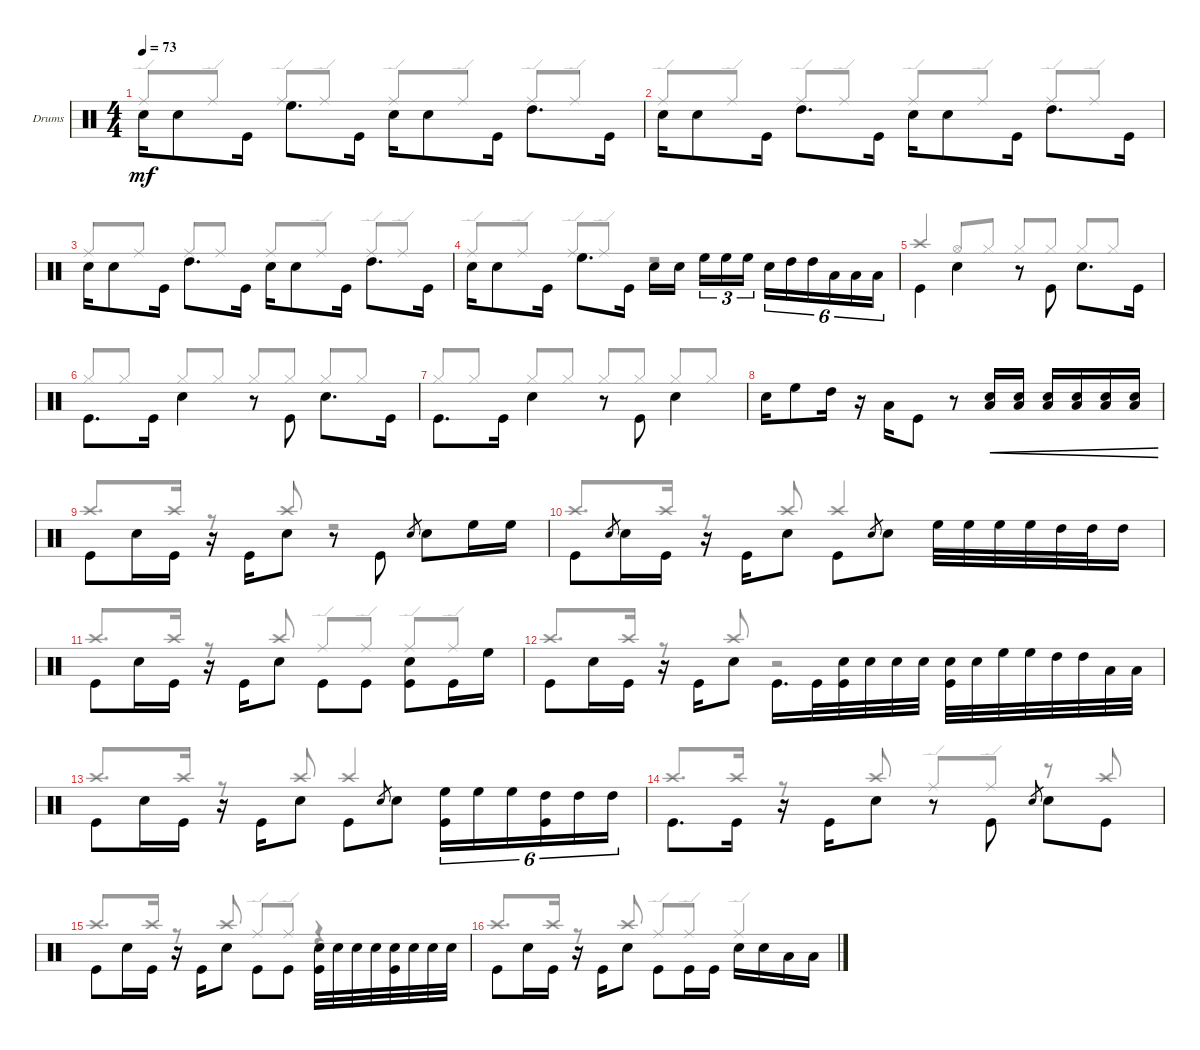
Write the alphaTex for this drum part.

\defaultSystemsLayout 4
\bracketExtendMode groupsimilarinstruments
\firstSystemTrackNameOrientation horizontal
\otherSystemsTrackNameOrientation horizontal
\track ("Drumkit" "Drums") {solo instrument percussion}
\staff {score}
\articulation defaults
\voice
\ts (4 4)
\tempo 73
\clef neutral
\ks c "Snare (hit) 2".16{dy mf beam invert} "Snare (hit) 2".8 "Kick (hit)".16 "High Floor Tom (hit)".8{d beam invert} "Kick (hit)".16 "Snare (hit) 2".16{beam invert} "Snare (hit) 2".8 "Kick (hit)".16 "High Tom (hit)".8{d beam invert} "Kick (hit)".16
|
"Snare (hit) 2".16{beam invert} "Snare (hit) 2".8 "Kick (hit)".16 "High Tom (hit)".8{d beam invert} "Kick (hit)".16 "Snare (hit) 2".16{beam invert} "Snare (hit) 2".8 "Kick (hit)".16 "High Tom (hit)".8{d beam invert} "Kick (hit)".16 |
"Snare (hit) 2".16{beam invert} "Snare (hit) 2".8 "Kick (hit)".16 "High Tom (hit)".8{d beam invert} "Kick (hit)".16 "Snare (hit) 2".16{beam invert} "Snare (hit) 2".8 "Kick (hit)".16 "High Tom (hit)".8{d beam invert} "Kick (hit)".16 |
"Snare (hit) 2".16{beam invert} "Snare (hit) 2".8 "Kick (hit)".16 "High Floor Tom (hit)".8{d beam invert} "Kick (hit)".16 "Snare (hit) 2".16{beam invert} "Snare (hit) 2".16 "High Floor Tom (hit)".16{tu (3 2) beam invert} "High Floor Tom (hit)".16{tu (3 2)} "High Floor Tom (hit)".16{tu (3 2)} "Snare (hit) 2".16{tu (6 4) beam invert} "High Tom (hit)".16{tu (6 4)} "High Tom (hit)".16{tu (6 4)} "Low Tom (hit)".16{tu (6 4)} "Low Tom (hit)".16{tu (6 4)} "Low Tom (hit)".16{tu (6 4)} |
\scale
0.239925 "Kick (hit)".4{beam invert} "Snare (hit) 2".4{beam invert} r.8 "Kick (hit)".8{beam invert} "Snare (hit) 2".8{d beam invert} "Kick (hit)".16 |
\scale
0.258172 "Kick (hit)".8{d beam invert} "Kick (hit)".16 "Snare (hit) 2".4{beam invert} r.8 "Kick (hit)".8{beam invert} "Snare (hit) 2".8{d beam invert} "Kick (hit)".16 |
\scale
0.207911 "Kick (hit)".8{d beam invert} "Kick (hit)".16 "Snare (hit) 2".4{beam invert} r.8 "Kick (hit)".8{beam invert} "Snare (hit) 2".4{beam invert} |
\scale
0.292541 "Snare (hit) 2".16 "High Floor Tom (hit)".8 "High Tom (hit)".16 r.16 "Low Tom (hit)".16{beam invert} "Kick (hit)".8 r.8 ("Snare (hit) 2" "Low Tom (hit)").16{cre beam invert} ("Snare (hit) 2" "Low Tom (hit)").16{cre} ("Snare (hit) 2" "Low Tom (hit)").16{cre beam invert} ("Snare (hit) 2" "Low Tom (hit)").16{cre} ("Snare (hit) 2" "Low Tom (hit)").16{cre} ("Snare (hit) 2" "Low Tom (hit)").16{cre} |
"Kick (hit)".8{beam invert} "Snare (hit) 2".16 "Kick (hit)".16 r.16 "Kick (hit)".16{beam invert} "Snare (hit) 2".8 r.8 "Kick (hit)".8{beam invert} "Snare (hit) 2".8{gr} "Snare (hit) 2".8{beam invert} "High Floor Tom (hit)".16 "High Floor Tom (hit)".16 |
"Kick (hit)".8{beam invert} "Snare (hit) 2".8{gr} "Snare (hit) 2".16 "Kick (hit)".16 r.16 "Kick (hit)".16{beam invert} "Snare (hit) 2".8 "Kick (hit)".8{beam invert} "Snare (hit) 2".8{gr} "Snare (hit) 2".8 "High Floor Tom (hit)".32{beam invert} "High Floor Tom (hit)".32 "High Floor Tom (hit)".32 "High Floor Tom (hit)".32 "High Tom (hit)".32 "High Tom (hit)".32 "High Tom (hit)".16 |
"Kick (hit)".8{beam invert} "Snare (hit) 2".16 "Kick (hit)".16 r.16 "Kick (hit)".16{beam invert} "Snare (hit) 2".8 "Kick (hit)".8{beam invert} "Kick (hit)".8 ("Snare (hit) 2" "Kick (hit)").8{beam invert} "Kick (hit)".16 "High Floor Tom (hit)".16 |
"Kick (hit)".8{beam invert} "Snare (hit) 2".16 "Kick (hit)".16 r.16 "Kick (hit)".16{beam invert} "Snare (hit) 2".8 "Kick (hit)".16{d beam invert} "Kick (hit)".32 ("Snare (hit) 2" "Kick (hit)").32 "Snare (hit) 2".32 "Snare (hit) 2".32 "Snare (hit) 2".32 ("Snare (hit) 2" "Kick (hit)").32{beam invert} "Snare (hit) 2".32 "High Floor Tom (hit)".32 "High Floor Tom (hit)".32 "High Tom (hit)".32 "High Tom (hit)".32 "Low Tom (hit)".32 "Low Tom (hit)".32 |
"Kick (hit)".8{beam invert} "Snare (hit) 2".16 "Kick (hit)".16 r.16 "Kick (hit)".16{beam invert} "Snare (hit) 2".8 "Kick (hit)".8{beam invert} "Snare (hit) 2".8{gr} "Snare (hit) 2".8 ("High Floor Tom (hit)" "Kick (hit)").16{tu (6 4) beam invert} "High Floor Tom (hit)".16{tu (6 4)} "High Floor Tom (hit)".16{tu (6 4)} ("High Tom (hit)" "Kick (hit)").16{tu (6 4)} "High Tom (hit)".16{tu (6 4)} "High Tom (hit)".16{tu (6 4)} |
"Kick (hit)".8{d beam invert} "Kick (hit)".16 r.16 "Kick (hit)".16{beam invert} "Snare (hit) 2".8 r.8 "Kick (hit)".8{beam invert} "Snare (hit) 2".8{gr} "Snare (hit) 2".8{beam invert} "Kick (hit)".8 |
"Kick (hit)".8{beam invert} "Snare (hit) 2".16 "Kick (hit)".16 r.16 "Kick (hit)".16{beam invert} "Snare (hit) 2".8 "Kick (hit)".8{beam invert} "Kick (hit)".8 ("Snare (hit) 2" "Kick (hit)").32{beam invert} "Snare (hit) 2".32 "Snare (hit) 2".32 "Snare (hit) 2".32 ("Snare (hit) 2" "Kick (hit)").32 "Snare (hit) 2".32 "Snare (hit) 2".32 "Snare (hit) 2".32 |
"Kick (hit)".8{beam invert} "Snare (hit) 2".16 "Kick (hit)".16 r.16 "Kick (hit)".16{beam invert} "Snare (hit) 2".8 "Kick (hit)".8{beam invert} "Kick (hit)".16 "Kick (hit)".16 "Snare (hit) 2".16{beam invert} "Snare (hit) 2".16 "Low Tom (hit)".16 "Low Tom (hit)".16
\voice
\clef neutral
\ottava regular
\simile none
\ks c "Ride (edge)".8{dy mf beam invert} "Ride (edge)".8 "Ride (edge)".8{beam invert} "Ride (edge)".8 "Ride (edge)".8{beam invert} "Ride (edge)".8 "Ride (edge)".8{beam invert} "Ride (edge)".8
|
"Ride (edge)".8{beam invert} "Ride (edge)".8 "Ride (edge)".8{beam invert} "Ride (edge)".8 "Ride (edge)".8{beam invert} "Ride (edge)".8 "Ride (edge)".8{beam invert} "Ride (edge)".8 |
"Ride (middle)".8{beam invert} "Ride (middle)".8 "Ride (middle)".8{beam invert} "Ride (middle)".8 "Ride (middle)".8{beam invert} "Ride (edge)".8 "Ride (edge)".8{beam invert} "Ride (edge)".8 |
"Ride (edge)".8{beam invert} "Ride (edge)".8 "Ride (edge)".8{beam invert} "Ride (edge)".8 r.2 |
\scale
0.239925 "Crash high (hit)".4{beam invert} "Hi-Hat (open)".8{beam invert} "Hi-Hat (closed)".8 "Hi-Hat (closed)".8{beam invert} "Hi-Hat (closed)".8 "Hi-Hat (closed)".8{beam invert} "Hi-Hat (closed)".8 |
\scale
0.258172 "Hi-Hat (closed)".8{beam invert} "Hi-Hat (closed)".8 "Hi-Hat (closed)".8{beam invert} "Hi-Hat (closed)".8 "Hi-Hat (closed)".8{beam invert} "Hi-Hat (closed)".8 "Hi-Hat (closed)".8{beam invert} "Hi-Hat (closed)".8 |
\scale
0.207911 "Hi-Hat (closed)".8{beam invert} "Hi-Hat (closed)".8 "Hi-Hat (closed)".8{beam invert} "Hi-Hat (closed)".8 "Hi-Hat (closed)".8{beam invert} "Hi-Hat (closed)".8 "Hi-Hat (closed)".8{beam invert} "Hi-Hat (closed)".8 |
\scale
0.292541 |
"Crash high (hit)".8{d beam invert} "Crash high (hit)".16 r.8{beam invert} "Crash high (hit)".8{beam invert} r.2{beam invert} |
"Crash high (hit)".8{d beam invert} "Crash high (hit)".16 r.8{beam invert} "Crash high (hit)".8{beam invert} "Crash high (hit)".2{beam invert} |
"Crash high (hit)".8{d beam invert} "Crash high (hit)".16 r.8{beam invert} "Crash high (hit)".8{beam invert} "Ride (edge)".8{beam invert} "Ride (edge)".8 "Ride (edge)".8{beam invert} "Ride (edge)".8 |
"Crash high (hit)".8{d beam invert} "Crash high (hit)".16 r.8{beam invert} "Crash high (hit)".8{beam invert} r.2{beam invert} |
"Crash high (hit)".8{d beam invert} "Crash high (hit)".16 r.8 "Crash high (hit)".8{beam invert} "Crash high (hit)".2{beam invert} |
"Crash high (hit)".8{d beam invert} "Crash high (hit)".16 r.8 "Crash high (hit)".8{beam invert} "Ride (edge)".8{beam invert} "Ride (edge)".8 r.8 "Crash high (hit)".8{beam invert} |
"Crash high (hit)".8{d beam invert} "Crash high (hit)".16 r.8 "Crash high (hit)".8{beam invert} "Ride (edge)".8{beam invert} "Ride (edge)".8 r.4 |
"Crash high (hit)".8{d beam invert} "Crash high (hit)".16 r.8 "Crash high (hit)".8{beam invert} "Ride (edge)".8{beam invert} "Ride (edge)".8 "Ride (edge)".4{beam invert}
